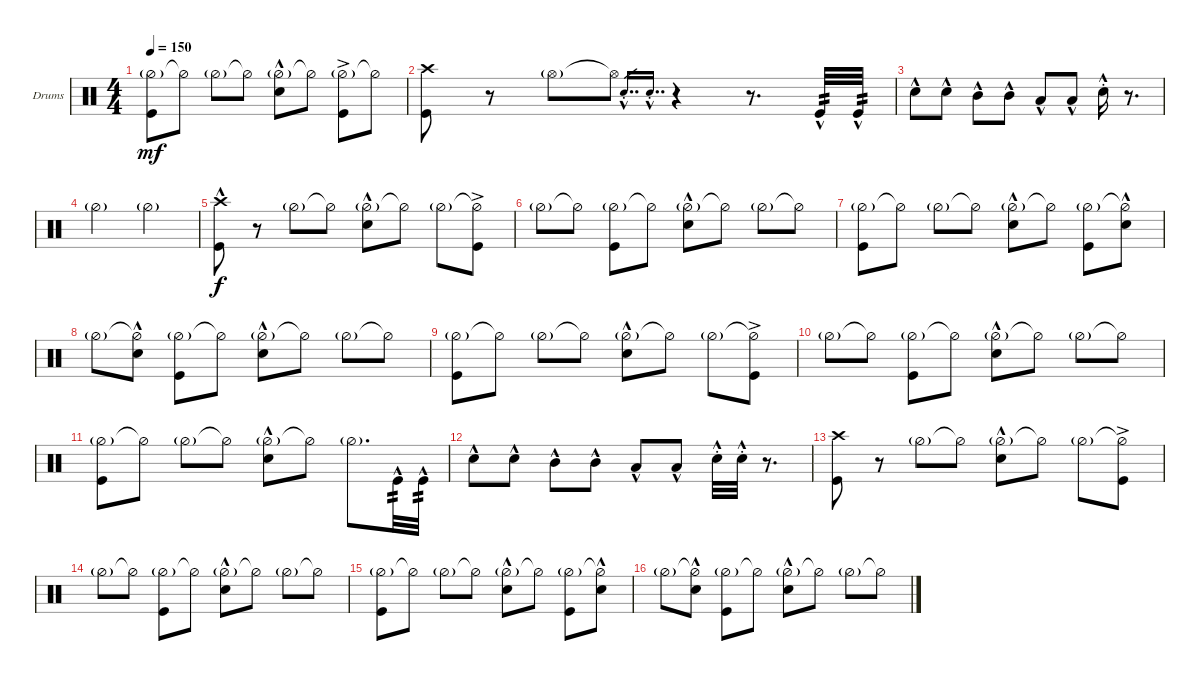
\bracketExtendMode groupsimilarinstruments
\firstSystemTrackNameOrientation horizontal
\otherSystemsTrackNameOrientation horizontal
\track ("Drumkit" "Drums") {instrument percussion}
\staff {score}
\articulation defaults
\ts (4 4)
\tempo 150
\clef neutral
\ks c
("Hi-Hat (half)"{g} "Kick (hit)").8{dy mf} "Hi-Hat (half)"{t}.8 "Hi-Hat (half)"{g}.8 "Hi-Hat (half)"{t}.8 ("Hi-Hat (half)"{g} "Snare (hit) 2"{hac}).8 "Hi-Hat (half)"{t}.8 ("Hi-Hat (half)"{g} "Kick (hit)"{ac}).8 "Hi-Hat (half)"{t}.8 |
("Kick (hit)" "Crash high (hit)").8 r.8 "Hi-Hat (open)"{g}.8 "Hi-Hat (open)"{t}.8 "Snare (hit) 2"{hac st}.16{dd gr} "Snare (hit) 2"{hac st}.16{dd gr} r.4 r.8{d} "Kick (hit)"{hac}.32{tp 2} "Kick (hit)"{hac}.32{tp 2} |
"Snare (hit) 2"{hac}.8 "Snare (hit) 2"{hac}.8 "Mid Tom (hit)"{hac}.8 "Mid Tom (hit)"{hac}.8 "Low Tom (hit)"{hac}.8 "Low Tom (hit)"{hac}.8 "Snare (hit) 2"{hac st}.16 r.8{d} |
"Hi-Hat (half)"{g}.2 "Hi-Hat (half)"{g}.2 |
("Kick (hit)"{hac} "Crash high (hit)").8{dy f} r.8 "Hi-Hat (half)"{g}.8 "Hi-Hat (half)"{t}.8 ("Hi-Hat (half)"{g} "Snare (hit) 2"{hac}).8 "Hi-Hat (half)"{t}.8 "Hi-Hat (half)"{g}.8 ("Hi-Hat (half)"{t} "Kick (hit)"{ac}).8 |
"Hi-Hat (half)"{g}.8 "Hi-Hat (half)"{t}.8 ("Hi-Hat (half)"{g} "Kick (hit)").8 "Hi-Hat (half)"{t}.8 ("Hi-Hat (half)"{g} "Snare (hit) 2"{hac}).8 "Hi-Hat (half)"{t}.8 "Hi-Hat (half)"{g}.8 "Hi-Hat (half)"{t}.8 |
("Hi-Hat (half)"{g} "Kick (hit)").8 "Hi-Hat (half)"{t}.8 "Hi-Hat (half)"{g}.8 "Hi-Hat (half)"{t}.8 ("Hi-Hat (half)"{g} "Snare (hit) 2"{hac}).8 "Hi-Hat (half)"{t}.8 ("Hi-Hat (half)"{g} "Kick (hit)").8 ("Hi-Hat (half)"{t} "Snare (hit) 2"{hac}).8 |
"Hi-Hat (half)"{g}.8 ("Hi-Hat (half)"{t} "Snare (hit) 2"{hac}).8 ("Hi-Hat (half)"{g} "Kick (hit)").8 "Hi-Hat (half)"{t}.8 ("Hi-Hat (half)"{g} "Snare (hit) 2"{hac}).8 "Hi-Hat (half)"{t}.8 "Hi-Hat (half)"{g}.8 "Hi-Hat (half)"{t}.8 |
("Hi-Hat (half)"{g} "Kick (hit)").8 "Hi-Hat (half)"{t}.8 "Hi-Hat (half)"{g}.8 "Hi-Hat (half)"{t}.8 ("Hi-Hat (half)"{g} "Snare (hit) 2"{hac}).8 "Hi-Hat (half)"{t}.8 "Hi-Hat (half)"{g}.8 ("Hi-Hat (half)"{t} "Kick (hit)"{ac}).8 |
"Hi-Hat (half)"{g}.8 "Hi-Hat (half)"{t}.8 ("Hi-Hat (half)"{g} "Kick (hit)").8 "Hi-Hat (half)"{t}.8 ("Hi-Hat (half)"{g} "Snare (hit) 2"{hac}).8 "Hi-Hat (half)"{t}.8 "Hi-Hat (half)"{g}.8 "Hi-Hat (half)"{t}.8 |
("Hi-Hat (half)"{g} "Kick (hit)").8 "Hi-Hat (half)"{t}.8 "Hi-Hat (half)"{g}.8 "Hi-Hat (half)"{t}.8 ("Hi-Hat (half)"{g} "Snare (hit) 2"{hac}).8 "Hi-Hat (half)"{t}.8 "Hi-Hat (half)"{g}.8{d} "Kick (hit)"{hac}.32{tp 2} "Kick (hit)"{hac}.32{tp 2} |
"Snare (hit) 2"{hac}.8 "Snare (hit) 2"{hac}.8 "Mid Tom (hit)"{hac}.8 "Mid Tom (hit)"{hac}.8 "Low Tom (hit)"{hac}.8 "Low Tom (hit)"{hac}.8 "Snare (hit) 2"{hac st}.32 "Snare (hit) 2"{hac st}.32 r.8{d} |
("Kick (hit)" "Crash high (hit)").8 r.8 "Hi-Hat (half)"{g}.8 "Hi-Hat (half)"{t}.8 ("Hi-Hat (half)"{g} "Snare (hit) 2"{hac}).8 "Hi-Hat (half)"{t}.8 "Hi-Hat (half)"{g}.8 ("Hi-Hat (half)"{t} "Kick (hit)"{ac}).8 |
"Hi-Hat (half)"{g}.8 "Hi-Hat (half)"{t}.8 ("Hi-Hat (half)"{g} "Kick (hit)").8 "Hi-Hat (half)"{t}.8 ("Hi-Hat (half)"{g} "Snare (hit) 2"{hac}).8 "Hi-Hat (half)"{t}.8 "Hi-Hat (half)"{g}.8 "Hi-Hat (half)"{t}.8 |
("Hi-Hat (half)"{g} "Kick (hit)").8 "Hi-Hat (half)"{t}.8 "Hi-Hat (half)"{g}.8 "Hi-Hat (half)"{t}.8 ("Hi-Hat (half)"{g} "Snare (hit) 2"{hac}).8 "Hi-Hat (half)"{t}.8 ("Hi-Hat (half)"{g} "Kick (hit)").8 ("Hi-Hat (half)"{t} "Snare (hit) 2"{hac}).8 |
"Hi-Hat (half)"{g}.8 ("Hi-Hat (half)"{t} "Snare (hit) 2"{hac}).8 ("Hi-Hat (half)"{g} "Kick (hit)").8 "Hi-Hat (half)"{t}.8 ("Hi-Hat (half)"{g} "Snare (hit) 2"{hac}).8 "Hi-Hat (half)"{t}.8 "Hi-Hat (half)"{g}.8 "Hi-Hat (half)"{t}.8
